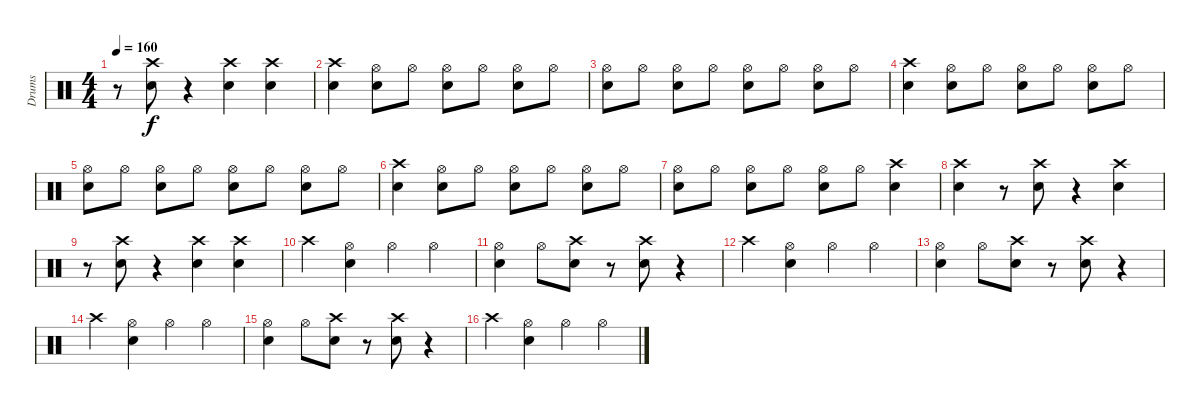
\track ("Drums" "Drums") {instrument percussion}
\staff {score}
\articulation defaults
\ts (4 4)
\tempo 160
\clef neutral
\ks c
r.8{dy f} ("Crash high (hit)" "Snare (hit) 2").8 r.4 ("Crash high (hit)" "Snare (hit) 2").4 ("Crash high (hit)" "Snare (hit) 2").4 |
("Crash high (hit)" "Snare (hit) 2").4 ("Hi-Hat (open)" "Snare (hit) 2").8 "Hi-Hat (open)".8 ("Hi-Hat (open)" "Snare (hit) 2").8 "Hi-Hat (open)".8 ("Hi-Hat (open)" "Snare (hit) 2").8 "Hi-Hat (open)".8 |
("Hi-Hat (open)" "Snare (hit) 2").8 "Hi-Hat (open)".8 ("Hi-Hat (open)" "Snare (hit) 2").8 "Hi-Hat (open)".8 ("Hi-Hat (open)" "Snare (hit) 2").8 "Hi-Hat (open)".8 ("Hi-Hat (open)" "Snare (hit) 2").8 "Hi-Hat (open)".8 |
("Crash high (hit)" "Snare (hit) 2").4 ("Hi-Hat (open)" "Snare (hit) 2").8 "Hi-Hat (open)".8 ("Hi-Hat (open)" "Snare (hit) 2").8 "Hi-Hat (open)".8 ("Hi-Hat (open)" "Snare (hit) 2").8 "Hi-Hat (open)".8 |
("Hi-Hat (open)" "Snare (hit) 2").8 "Hi-Hat (open)".8 ("Hi-Hat (open)" "Snare (hit) 2").8 "Hi-Hat (open)".8 ("Hi-Hat (open)" "Snare (hit) 2").8 "Hi-Hat (open)".8 ("Hi-Hat (open)" "Snare (hit) 2").8 "Hi-Hat (open)".8 |
("Crash high (hit)" "Snare (hit) 2").4 ("Hi-Hat (open)" "Snare (hit) 2").8 "Hi-Hat (open)".8 ("Hi-Hat (open)" "Snare (hit) 2").8 "Hi-Hat (open)".8 ("Hi-Hat (open)" "Snare (hit) 2").8 "Hi-Hat (open)".8 |
("Hi-Hat (open)" "Snare (hit) 2").8 "Hi-Hat (open)".8 ("Hi-Hat (open)" "Snare (hit) 2").8 "Hi-Hat (open)".8 ("Hi-Hat (open)" "Snare (hit) 2").8 "Hi-Hat (open)".8 ("Crash high (hit)" "Snare (hit) 2").4 |
("Crash high (hit)" "Snare (hit) 2").4 r.8 ("Crash high (hit)" "Snare (hit) 2").8 r.4 ("Crash high (hit)" "Snare (hit) 2").4 |
r.8 ("Crash high (hit)" "Snare (hit) 2").8 r.4 ("Crash high (hit)" "Snare (hit) 2").4 ("Crash high (hit)" "Snare (hit) 2").4 |
"Crash high (hit)".4 ("Hi-Hat (open)" "Snare (hit) 2").4 "Hi-Hat (open)".4 "Hi-Hat (open)".4 |
("Hi-Hat (open)" "Snare (hit) 2").4 "Hi-Hat (open)".8 ("Crash high (hit)" "Snare (hit) 2").8 r.8 ("Crash high (hit)" "Snare (hit) 2").8 r.4 |
"Crash high (hit)".4 ("Hi-Hat (open)" "Snare (hit) 2").4 "Hi-Hat (open)".4 "Hi-Hat (open)".4 |
("Hi-Hat (open)" "Snare (hit) 2").4 "Hi-Hat (open)".8 ("Crash high (hit)" "Snare (hit) 2").8 r.8 ("Crash high (hit)" "Snare (hit) 2").8 r.4 |
"Crash high (hit)".4 ("Hi-Hat (open)" "Snare (hit) 2").4 "Hi-Hat (open)".4 "Hi-Hat (open)".4 |
("Hi-Hat (open)" "Snare (hit) 2").4 "Hi-Hat (open)".8 ("Crash high (hit)" "Snare (hit) 2").8 r.8 ("Crash high (hit)" "Snare (hit) 2").8 r.4 |
"Crash high (hit)".4 ("Hi-Hat (open)" "Snare (hit) 2").4 "Hi-Hat (open)".4 "Hi-Hat (open)".4
